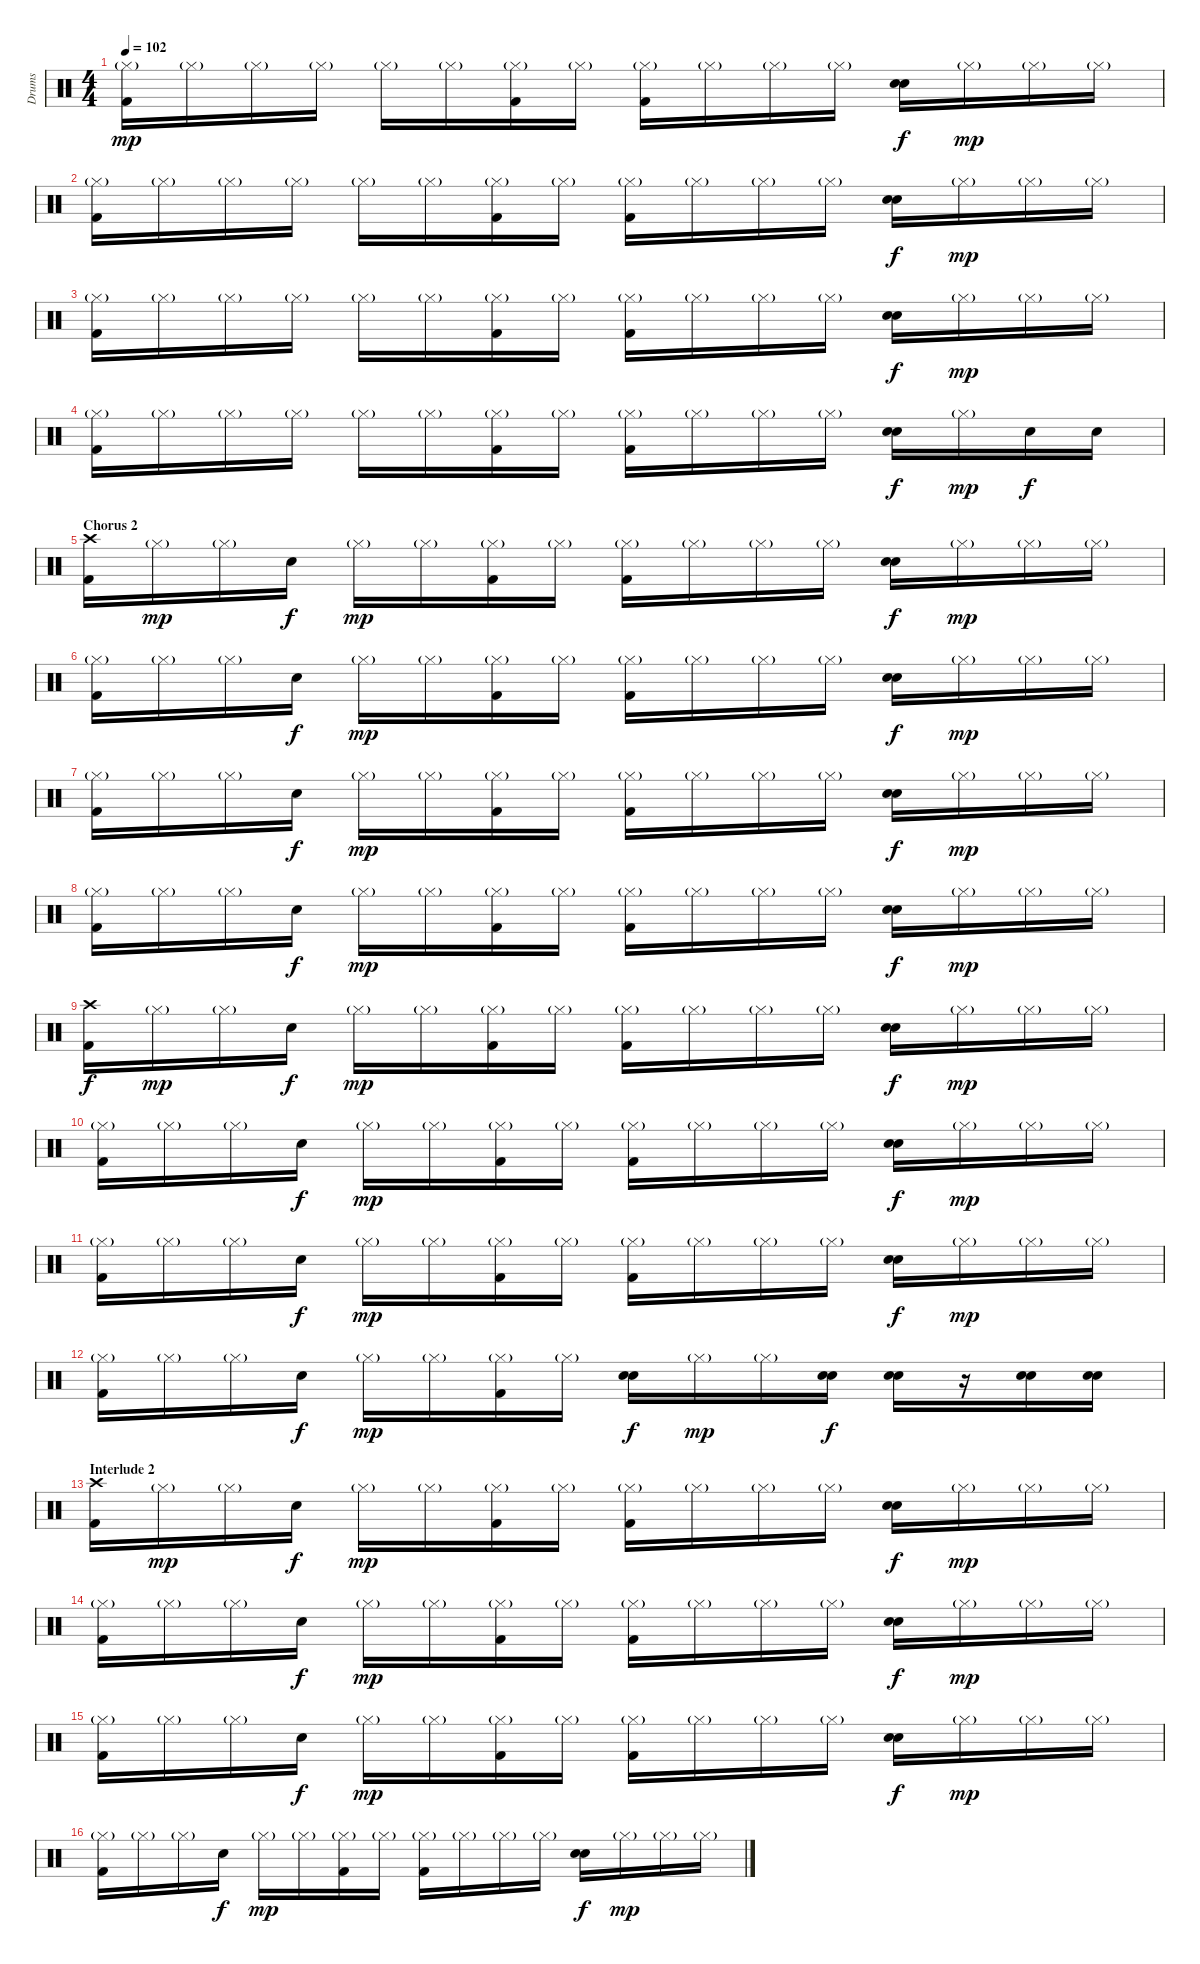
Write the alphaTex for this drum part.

\track ("Drums" "Drums") {instrument percussion}
\staff {score}
\articulation defaults
\ts (4 4)
\tempo 102
\clef neutral
\ks c
("Hi-Hat (closed)"{g} "Kick (hit) 2").16{dy mp} "Hi-Hat (closed)"{g}.16 "Hi-Hat (closed)"{g}.16 "Hi-Hat (closed)"{g}.16 "Hi-Hat (closed)"{g}.16 "Hi-Hat (closed)"{g}.16 ("Hi-Hat (closed)"{g} "Kick (hit) 2").16 "Hi-Hat (closed)"{g}.16 ("Hi-Hat (closed)"{g} "Kick (hit) 2").16 "Hi-Hat (closed)"{g}.16 "Hi-Hat (closed)"{g}.16 "Hi-Hat (closed)"{g}.16 ("Snare (hit) 2" "Snare (hit) 2").16{dy f} "Hi-Hat (closed)"{g}.16{dy mp} "Hi-Hat (closed)"{g}.16 "Hi-Hat (closed)"{g}.16 |
("Hi-Hat (closed)"{g} "Kick (hit) 2").16 "Hi-Hat (closed)"{g}.16 "Hi-Hat (closed)"{g}.16 "Hi-Hat (closed)"{g}.16 "Hi-Hat (closed)"{g}.16 "Hi-Hat (closed)"{g}.16 ("Hi-Hat (closed)"{g} "Kick (hit) 2").16 "Hi-Hat (closed)"{g}.16 ("Hi-Hat (closed)"{g} "Kick (hit) 2").16 "Hi-Hat (closed)"{g}.16 "Hi-Hat (closed)"{g}.16 "Hi-Hat (closed)"{g}.16 ("Snare (hit) 2" "Snare (hit) 2").16{dy f} "Hi-Hat (closed)"{g}.16{dy mp} "Hi-Hat (closed)"{g}.16 "Hi-Hat (closed)"{g}.16 |
("Hi-Hat (closed)"{g} "Kick (hit) 2").16 "Hi-Hat (closed)"{g}.16 "Hi-Hat (closed)"{g}.16 "Hi-Hat (closed)"{g}.16 "Hi-Hat (closed)"{g}.16 "Hi-Hat (closed)"{g}.16 ("Hi-Hat (closed)"{g} "Kick (hit) 2").16 "Hi-Hat (closed)"{g}.16 ("Hi-Hat (closed)"{g} "Kick (hit) 2").16 "Hi-Hat (closed)"{g}.16 "Hi-Hat (closed)"{g}.16 "Hi-Hat (closed)"{g}.16 ("Snare (hit) 2" "Snare (hit) 2").16{dy f} "Hi-Hat (closed)"{g}.16{dy mp} "Hi-Hat (closed)"{g}.16 "Hi-Hat (closed)"{g}.16 |
("Hi-Hat (closed)"{g} "Kick (hit) 2").16 "Hi-Hat (closed)"{g}.16 "Hi-Hat (closed)"{g}.16 "Hi-Hat (closed)"{g}.16 "Hi-Hat (closed)"{g}.16 "Hi-Hat (closed)"{g}.16 ("Hi-Hat (closed)"{g} "Kick (hit) 2").16 "Hi-Hat (closed)"{g}.16 ("Hi-Hat (closed)"{g} "Kick (hit) 2").16 "Hi-Hat (closed)"{g}.16 "Hi-Hat (closed)"{g}.16 "Hi-Hat (closed)"{g}.16 ("Snare (hit) 2" "Snare (hit) 2").16{dy f} "Hi-Hat (closed)"{g}.16{dy mp} "Snare (hit) 2".16{dy f} "Snare (hit) 2".16 |
\section ("" "Chorus 2")
("Crash high (hit)" "Kick (hit) 2").16 "Hi-Hat (closed)"{g}.16{dy mp} "Hi-Hat (closed)"{g}.16 "Snare (hit) 2".16{dy f} "Hi-Hat (closed)"{g}.16{dy mp} "Hi-Hat (closed)"{g}.16 ("Hi-Hat (closed)"{g} "Kick (hit) 2").16 "Hi-Hat (closed)"{g}.16 ("Hi-Hat (closed)"{g} "Kick (hit) 2").16 "Hi-Hat (closed)"{g}.16 "Hi-Hat (closed)"{g}.16 "Hi-Hat (closed)"{g}.16 ("Snare (hit) 2" "Snare (hit) 2").16{dy f} "Hi-Hat (closed)"{g}.16{dy mp} "Hi-Hat (closed)"{g}.16 "Hi-Hat (closed)"{g}.16 |
("Hi-Hat (closed)"{g} "Kick (hit) 2").16 "Hi-Hat (closed)"{g}.16 "Hi-Hat (closed)"{g}.16 "Snare (hit) 2".16{dy f} "Hi-Hat (closed)"{g}.16{dy mp} "Hi-Hat (closed)"{g}.16 ("Hi-Hat (closed)"{g} "Kick (hit) 2").16 "Hi-Hat (closed)"{g}.16 ("Hi-Hat (closed)"{g} "Kick (hit) 2").16 "Hi-Hat (closed)"{g}.16 "Hi-Hat (closed)"{g}.16 "Hi-Hat (closed)"{g}.16 ("Snare (hit) 2" "Snare (hit) 2").16{dy f} "Hi-Hat (closed)"{g}.16{dy mp} "Hi-Hat (closed)"{g}.16 "Hi-Hat (closed)"{g}.16 |
("Hi-Hat (closed)"{g} "Kick (hit) 2").16 "Hi-Hat (closed)"{g}.16 "Hi-Hat (closed)"{g}.16 "Snare (hit) 2".16{dy f} "Hi-Hat (closed)"{g}.16{dy mp} "Hi-Hat (closed)"{g}.16 ("Hi-Hat (closed)"{g} "Kick (hit) 2").16 "Hi-Hat (closed)"{g}.16 ("Hi-Hat (closed)"{g} "Kick (hit) 2").16 "Hi-Hat (closed)"{g}.16 "Hi-Hat (closed)"{g}.16 "Hi-Hat (closed)"{g}.16 ("Snare (hit) 2" "Snare (hit) 2").16{dy f} "Hi-Hat (closed)"{g}.16{dy mp} "Hi-Hat (closed)"{g}.16 "Hi-Hat (closed)"{g}.16 |
("Hi-Hat (closed)"{g} "Kick (hit) 2").16 "Hi-Hat (closed)"{g}.16 "Hi-Hat (closed)"{g}.16 "Snare (hit) 2".16{dy f} "Hi-Hat (closed)"{g}.16{dy mp} "Hi-Hat (closed)"{g}.16 ("Hi-Hat (closed)"{g} "Kick (hit) 2").16 "Hi-Hat (closed)"{g}.16 ("Hi-Hat (closed)"{g} "Kick (hit) 2").16 "Hi-Hat (closed)"{g}.16 "Hi-Hat (closed)"{g}.16 "Hi-Hat (closed)"{g}.16 ("Snare (hit) 2" "Snare (hit) 2").16{dy f} "Hi-Hat (closed)"{g}.16{dy mp} "Hi-Hat (closed)"{g}.16 "Hi-Hat (closed)"{g}.16 |
("Crash high (hit)" "Kick (hit) 2").16{dy f} "Hi-Hat (closed)"{g}.16{dy mp} "Hi-Hat (closed)"{g}.16 "Snare (hit) 2".16{dy f} "Hi-Hat (closed)"{g}.16{dy mp} "Hi-Hat (closed)"{g}.16 ("Hi-Hat (closed)"{g} "Kick (hit) 2").16 "Hi-Hat (closed)"{g}.16 ("Hi-Hat (closed)"{g} "Kick (hit) 2").16 "Hi-Hat (closed)"{g}.16 "Hi-Hat (closed)"{g}.16 "Hi-Hat (closed)"{g}.16 ("Snare (hit) 2" "Snare (hit) 2").16{dy f} "Hi-Hat (closed)"{g}.16{dy mp} "Hi-Hat (closed)"{g}.16 "Hi-Hat (closed)"{g}.16 |
("Hi-Hat (closed)"{g} "Kick (hit) 2").16 "Hi-Hat (closed)"{g}.16 "Hi-Hat (closed)"{g}.16 "Snare (hit) 2".16{dy f} "Hi-Hat (closed)"{g}.16{dy mp} "Hi-Hat (closed)"{g}.16 ("Hi-Hat (closed)"{g} "Kick (hit) 2").16 "Hi-Hat (closed)"{g}.16 ("Hi-Hat (closed)"{g} "Kick (hit) 2").16 "Hi-Hat (closed)"{g}.16 "Hi-Hat (closed)"{g}.16 "Hi-Hat (closed)"{g}.16 ("Snare (hit) 2" "Snare (hit) 2").16{dy f} "Hi-Hat (closed)"{g}.16{dy mp} "Hi-Hat (closed)"{g}.16 "Hi-Hat (closed)"{g}.16 |
("Hi-Hat (closed)"{g} "Kick (hit) 2").16 "Hi-Hat (closed)"{g}.16 "Hi-Hat (closed)"{g}.16 "Snare (hit) 2".16{dy f} "Hi-Hat (closed)"{g}.16{dy mp} "Hi-Hat (closed)"{g}.16 ("Hi-Hat (closed)"{g} "Kick (hit) 2").16 "Hi-Hat (closed)"{g}.16 ("Hi-Hat (closed)"{g} "Kick (hit) 2").16 "Hi-Hat (closed)"{g}.16 "Hi-Hat (closed)"{g}.16 "Hi-Hat (closed)"{g}.16 ("Snare (hit) 2" "Snare (hit) 2").16{dy f} "Hi-Hat (closed)"{g}.16{dy mp} "Hi-Hat (closed)"{g}.16 "Hi-Hat (closed)"{g}.16 |
("Hi-Hat (closed)"{g} "Kick (hit) 2").16 "Hi-Hat (closed)"{g}.16 "Hi-Hat (closed)"{g}.16 "Snare (hit) 2".16{dy f} "Hi-Hat (closed)"{g}.16{dy mp} "Hi-Hat (closed)"{g}.16 ("Hi-Hat (closed)"{g} "Kick (hit) 2").16 "Hi-Hat (closed)"{g}.16 ("Snare (hit) 2" "Snare (hit) 2").16{dy f} "Hi-Hat (closed)"{g}.16{dy mp} "Hi-Hat (closed)"{g}.16 ("Snare (hit) 2" "Snare (hit) 2").16{dy f} ("Snare (hit) 2" "Snare (hit) 2").16 r.16 ("Snare (hit) 2" "Snare (hit) 2").16 ("Snare (hit) 2" "Snare (hit) 2").16 |
\section ("" "Interlude 2")
("Crash high (hit)" "Kick (hit) 2").16 "Hi-Hat (closed)"{g}.16{dy mp} "Hi-Hat (closed)"{g}.16 "Snare (hit) 2".16{dy f} "Hi-Hat (closed)"{g}.16{dy mp} "Hi-Hat (closed)"{g}.16 ("Hi-Hat (closed)"{g} "Kick (hit) 2").16 "Hi-Hat (closed)"{g}.16 ("Hi-Hat (closed)"{g} "Kick (hit) 2").16 "Hi-Hat (closed)"{g}.16 "Hi-Hat (closed)"{g}.16 "Hi-Hat (closed)"{g}.16 ("Snare (hit) 2" "Snare (hit) 2").16{dy f} "Hi-Hat (closed)"{g}.16{dy mp} "Hi-Hat (closed)"{g}.16 "Hi-Hat (closed)"{g}.16 |
("Hi-Hat (closed)"{g} "Kick (hit) 2").16 "Hi-Hat (closed)"{g}.16 "Hi-Hat (closed)"{g}.16 "Snare (hit) 2".16{dy f} "Hi-Hat (closed)"{g}.16{dy mp} "Hi-Hat (closed)"{g}.16 ("Hi-Hat (closed)"{g} "Kick (hit) 2").16 "Hi-Hat (closed)"{g}.16 ("Hi-Hat (closed)"{g} "Kick (hit) 2").16 "Hi-Hat (closed)"{g}.16 "Hi-Hat (closed)"{g}.16 "Hi-Hat (closed)"{g}.16 ("Snare (hit) 2" "Snare (hit) 2").16{dy f} "Hi-Hat (closed)"{g}.16{dy mp} "Hi-Hat (closed)"{g}.16 "Hi-Hat (closed)"{g}.16 |
("Hi-Hat (closed)"{g} "Kick (hit) 2").16 "Hi-Hat (closed)"{g}.16 "Hi-Hat (closed)"{g}.16 "Snare (hit) 2".16{dy f} "Hi-Hat (closed)"{g}.16{dy mp} "Hi-Hat (closed)"{g}.16 ("Hi-Hat (closed)"{g} "Kick (hit) 2").16 "Hi-Hat (closed)"{g}.16 ("Hi-Hat (closed)"{g} "Kick (hit) 2").16 "Hi-Hat (closed)"{g}.16 "Hi-Hat (closed)"{g}.16 "Hi-Hat (closed)"{g}.16 ("Snare (hit) 2" "Snare (hit) 2").16{dy f} "Hi-Hat (closed)"{g}.16{dy mp} "Hi-Hat (closed)"{g}.16 "Hi-Hat (closed)"{g}.16 |
("Hi-Hat (closed)"{g} "Kick (hit) 2").16 "Hi-Hat (closed)"{g}.16 "Hi-Hat (closed)"{g}.16 "Snare (hit) 2".16{dy f} "Hi-Hat (closed)"{g}.16{dy mp} "Hi-Hat (closed)"{g}.16 ("Hi-Hat (closed)"{g} "Kick (hit) 2").16 "Hi-Hat (closed)"{g}.16 ("Hi-Hat (closed)"{g} "Kick (hit) 2").16 "Hi-Hat (closed)"{g}.16 "Hi-Hat (closed)"{g}.16 "Hi-Hat (closed)"{g}.16 ("Snare (hit) 2" "Snare (hit) 2").16{dy f} "Hi-Hat (closed)"{g}.16{dy mp} "Hi-Hat (closed)"{g}.16 "Hi-Hat (closed)"{g}.16
